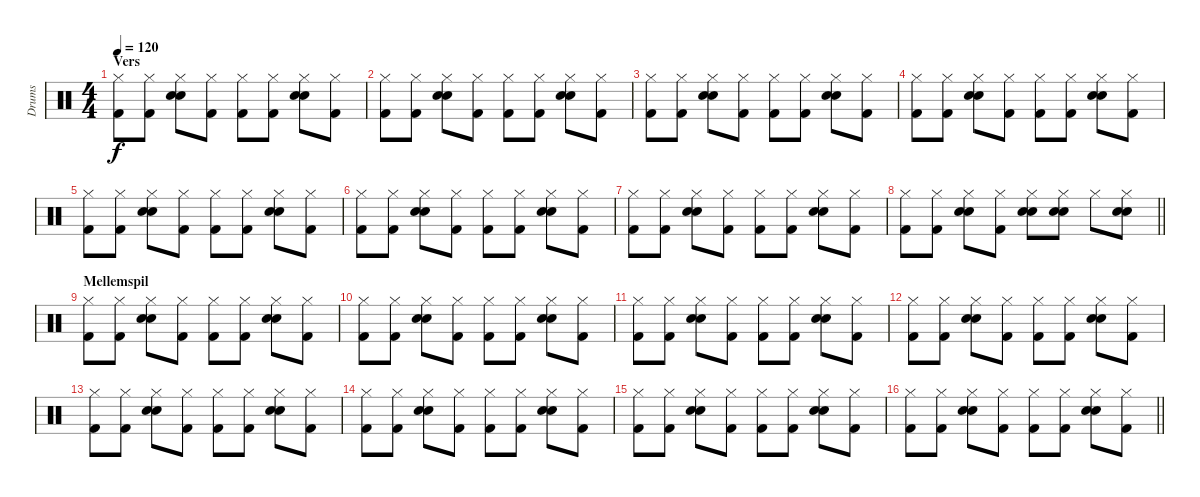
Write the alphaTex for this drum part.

\track ("Drums" "Drums") {instrument percussion}
\staff {score}
\articulation defaults
\ts (4 4)
\section ("" "Vers")
\tempo 120
\clef neutral
\ks c
("Hi-Hat (closed)" "Kick (hit) 2").8{dy f} ("Hi-Hat (closed)" "Kick (hit) 2").8 ("Hand Clap (hit)" "Hi-Hat (closed)" "Electric Snare (hit)").8 ("Hi-Hat (closed)" "Kick (hit) 2").8 ("Hi-Hat (closed)" "Kick (hit) 2").8 ("Hi-Hat (closed)" "Kick (hit) 2").8 ("Hand Clap (hit)" "Hi-Hat (closed)" "Electric Snare (hit)").8 ("Hi-Hat (closed)" "Kick (hit) 2").8 |
("Hi-Hat (closed)" "Kick (hit) 2").8 ("Hi-Hat (closed)" "Kick (hit) 2").8 ("Hand Clap (hit)" "Hi-Hat (closed)" "Electric Snare (hit)").8 ("Hi-Hat (closed)" "Kick (hit) 2").8 ("Hi-Hat (closed)" "Kick (hit) 2").8 ("Hi-Hat (closed)" "Kick (hit) 2").8 ("Hand Clap (hit)" "Hi-Hat (closed)" "Electric Snare (hit)").8 ("Hi-Hat (closed)" "Kick (hit) 2").8 |
("Hi-Hat (closed)" "Kick (hit) 2").8 ("Hi-Hat (closed)" "Kick (hit) 2").8 ("Hand Clap (hit)" "Hi-Hat (closed)" "Electric Snare (hit)").8 ("Hi-Hat (closed)" "Kick (hit) 2").8 ("Hi-Hat (closed)" "Kick (hit) 2").8 ("Hi-Hat (closed)" "Kick (hit) 2").8 ("Hand Clap (hit)" "Hi-Hat (closed)" "Electric Snare (hit)").8 ("Hi-Hat (closed)" "Kick (hit) 2").8 |
("Hi-Hat (closed)" "Kick (hit) 2").8 ("Hi-Hat (closed)" "Kick (hit) 2").8 ("Hand Clap (hit)" "Hi-Hat (closed)" "Electric Snare (hit)").8 ("Hi-Hat (closed)" "Kick (hit) 2").8 ("Hi-Hat (closed)" "Kick (hit) 2").8 ("Hi-Hat (closed)" "Kick (hit) 2").8 ("Hand Clap (hit)" "Hi-Hat (closed)" "Electric Snare (hit)").8 ("Hi-Hat (closed)" "Kick (hit) 2").8 |
("Hi-Hat (closed)" "Kick (hit) 2").8 ("Hi-Hat (closed)" "Kick (hit) 2").8 ("Hand Clap (hit)" "Hi-Hat (closed)" "Electric Snare (hit)").8 ("Hi-Hat (closed)" "Kick (hit) 2").8 ("Hi-Hat (closed)" "Kick (hit) 2").8 ("Hi-Hat (closed)" "Kick (hit) 2").8 ("Hand Clap (hit)" "Hi-Hat (closed)" "Electric Snare (hit)").8 ("Hi-Hat (closed)" "Kick (hit) 2").8 |
("Hi-Hat (closed)" "Kick (hit) 2").8 ("Hi-Hat (closed)" "Kick (hit) 2").8 ("Hand Clap (hit)" "Hi-Hat (closed)" "Electric Snare (hit)").8 ("Hi-Hat (closed)" "Kick (hit) 2").8 ("Hi-Hat (closed)" "Kick (hit) 2").8 ("Hi-Hat (closed)" "Kick (hit) 2").8 ("Hand Clap (hit)" "Hi-Hat (closed)" "Electric Snare (hit)").8 ("Hi-Hat (closed)" "Kick (hit) 2").8 |
("Hi-Hat (closed)" "Kick (hit) 2").8 ("Hi-Hat (closed)" "Kick (hit) 2").8 ("Hand Clap (hit)" "Hi-Hat (closed)" "Electric Snare (hit)").8 ("Hi-Hat (closed)" "Kick (hit) 2").8 ("Hi-Hat (closed)" "Kick (hit) 2").8 ("Hi-Hat (closed)" "Kick (hit) 2").8 ("Hand Clap (hit)" "Hi-Hat (closed)" "Electric Snare (hit)").8 ("Hi-Hat (closed)" "Kick (hit) 2").8 |
\barLineRight lightlight
("Hi-Hat (closed)" "Kick (hit) 2").8 ("Hi-Hat (closed)" "Kick (hit) 2").8 ("Hand Clap (hit)" "Hi-Hat (closed)" "Electric Snare (hit)").8 ("Hi-Hat (closed)" "Kick (hit) 2").8 ("Hand Clap (hit)" "Hi-Hat (closed)" "Electric Snare (hit)").8 ("Hand Clap (hit)" "Hi-Hat (closed)" "Electric Snare (hit)").8 "Hi-Hat (closed)".8 ("Hand Clap (hit)" "Hi-Hat (closed)" "Electric Snare (hit)").8 |
\section ("" "Mellemspil")
("Hi-Hat (closed)" "Kick (hit) 2").8 ("Hi-Hat (closed)" "Kick (hit) 2").8 ("Hand Clap (hit)" "Hi-Hat (closed)" "Electric Snare (hit)").8 ("Hi-Hat (closed)" "Kick (hit) 2").8 ("Hi-Hat (closed)" "Kick (hit) 2").8 ("Hi-Hat (closed)" "Kick (hit) 2").8 ("Hand Clap (hit)" "Hi-Hat (closed)" "Electric Snare (hit)").8 ("Hi-Hat (closed)" "Kick (hit) 2").8 |
("Hi-Hat (closed)" "Kick (hit) 2").8 ("Hi-Hat (closed)" "Kick (hit) 2").8 ("Hand Clap (hit)" "Hi-Hat (closed)" "Electric Snare (hit)").8 ("Hi-Hat (closed)" "Kick (hit) 2").8 ("Hi-Hat (closed)" "Kick (hit) 2").8 ("Hi-Hat (closed)" "Kick (hit) 2").8 ("Hand Clap (hit)" "Hi-Hat (closed)" "Electric Snare (hit)").8 ("Hi-Hat (closed)" "Kick (hit) 2").8 |
("Hi-Hat (closed)" "Kick (hit) 2").8 ("Hi-Hat (closed)" "Kick (hit) 2").8 ("Hand Clap (hit)" "Hi-Hat (closed)" "Electric Snare (hit)").8 ("Hi-Hat (closed)" "Kick (hit) 2").8 ("Hi-Hat (closed)" "Kick (hit) 2").8 ("Hi-Hat (closed)" "Kick (hit) 2").8 ("Hand Clap (hit)" "Hi-Hat (closed)" "Electric Snare (hit)").8 ("Hi-Hat (closed)" "Kick (hit) 2").8 |
("Hi-Hat (closed)" "Kick (hit) 2").8 ("Hi-Hat (closed)" "Kick (hit) 2").8 ("Hand Clap (hit)" "Hi-Hat (closed)" "Electric Snare (hit)").8 ("Hi-Hat (closed)" "Kick (hit) 2").8 ("Hi-Hat (closed)" "Kick (hit) 2").8 ("Hi-Hat (closed)" "Kick (hit) 2").8 ("Hand Clap (hit)" "Hi-Hat (closed)" "Electric Snare (hit)").8 ("Hi-Hat (closed)" "Kick (hit) 2").8 |
("Hi-Hat (closed)" "Kick (hit) 2").8 ("Hi-Hat (closed)" "Kick (hit) 2").8 ("Hand Clap (hit)" "Hi-Hat (closed)" "Electric Snare (hit)").8 ("Hi-Hat (closed)" "Kick (hit) 2").8 ("Hi-Hat (closed)" "Kick (hit) 2").8 ("Hi-Hat (closed)" "Kick (hit) 2").8 ("Hand Clap (hit)" "Hi-Hat (closed)" "Electric Snare (hit)").8 ("Hi-Hat (closed)" "Kick (hit) 2").8 |
("Hi-Hat (closed)" "Kick (hit) 2").8 ("Hi-Hat (closed)" "Kick (hit) 2").8 ("Hand Clap (hit)" "Hi-Hat (closed)" "Electric Snare (hit)").8 ("Hi-Hat (closed)" "Kick (hit) 2").8 ("Hi-Hat (closed)" "Kick (hit) 2").8 ("Hi-Hat (closed)" "Kick (hit) 2").8 ("Hand Clap (hit)" "Hi-Hat (closed)" "Electric Snare (hit)").8 ("Hi-Hat (closed)" "Kick (hit) 2").8 |
("Hi-Hat (closed)" "Kick (hit) 2").8 ("Hi-Hat (closed)" "Kick (hit) 2").8 ("Hand Clap (hit)" "Hi-Hat (closed)" "Electric Snare (hit)").8 ("Hi-Hat (closed)" "Kick (hit) 2").8 ("Hi-Hat (closed)" "Kick (hit) 2").8 ("Hi-Hat (closed)" "Kick (hit) 2").8 ("Hand Clap (hit)" "Hi-Hat (closed)" "Electric Snare (hit)").8 ("Hi-Hat (closed)" "Kick (hit) 2").8 |
\barLineRight lightlight
("Hi-Hat (closed)" "Kick (hit) 2").8 ("Hi-Hat (closed)" "Kick (hit) 2").8 ("Hand Clap (hit)" "Hi-Hat (closed)" "Electric Snare (hit)").8 ("Hi-Hat (closed)" "Kick (hit) 2").8 ("Hi-Hat (closed)" "Kick (hit) 2").8 ("Hi-Hat (closed)" "Kick (hit) 2").8 ("Hand Clap (hit)" "Hi-Hat (closed)" "Electric Snare (hit)").8 ("Hi-Hat (closed)" "Kick (hit) 2").8
